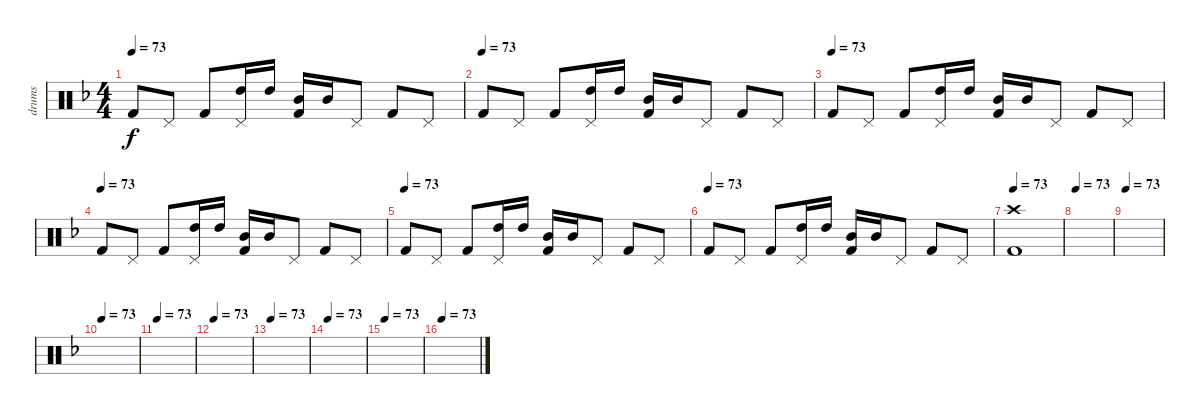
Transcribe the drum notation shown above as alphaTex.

\track ("drums" "drums") {instrument percussion}
\staff {score}
\articulation defaults
\ts (4 4)
\tempo 73
\clef neutral
\ks dminor "Kick (hit) 2".8{dy f} "Pedal Hi-Hat (hit)".8 "Kick (hit) 2".8
("Pedal Hi-Hat (hit)" "High Tom (hit)").16 "High Tom (hit)".16 ("Mid Tom (hit)" "Kick (hit) 2").16 "Mid Tom (hit)".16 "Pedal Hi-Hat (hit)".8 "Kick (hit) 2".8 "Pedal Hi-Hat (hit)".8 |
\tempo (73)
"Kick (hit) 2".8 "Pedal Hi-Hat (hit)".8 "Kick (hit) 2".8 ("Pedal Hi-Hat (hit)" "High Tom (hit)").16 "High Tom (hit)".16 ("Mid Tom (hit)" "Kick (hit) 2").16 "Mid Tom (hit)".16 "Pedal Hi-Hat (hit)".8 "Kick (hit) 2".8 "Pedal Hi-Hat (hit)".8 |
\tempo (73)
"Kick (hit) 2".8 "Pedal Hi-Hat (hit)".8 "Kick (hit) 2".8 ("Pedal Hi-Hat (hit)" "High Tom (hit)").16 "High Tom (hit)".16 ("Mid Tom (hit)" "Kick (hit) 2").16 "Mid Tom (hit)".16 "Pedal Hi-Hat (hit)".8 "Kick (hit) 2".8 "Pedal Hi-Hat (hit)".8 |
\tempo (73)
"Kick (hit) 2".8 "Pedal Hi-Hat (hit)".8 "Kick (hit) 2".8 ("Pedal Hi-Hat (hit)" "High Tom (hit)").16 "High Tom (hit)".16 ("Mid Tom (hit)" "Kick (hit) 2").16 "Mid Tom (hit)".16 "Pedal Hi-Hat (hit)".8 "Kick (hit) 2".8 "Pedal Hi-Hat (hit)".8 |
\tempo (73)
"Kick (hit) 2".8 "Pedal Hi-Hat (hit)".8 "Kick (hit) 2".8 ("Pedal Hi-Hat (hit)" "High Tom (hit)").16 "High Tom (hit)".16 ("Mid Tom (hit)" "Kick (hit) 2").16 "Mid Tom (hit)".16 "Pedal Hi-Hat (hit)".8 "Kick (hit) 2".8 "Pedal Hi-Hat (hit)".8 |
\tempo (73)
"Kick (hit) 2".8 "Pedal Hi-Hat (hit)".8 "Kick (hit) 2".8 ("Pedal Hi-Hat (hit)" "High Tom (hit)").16 "High Tom (hit)".16 ("Mid Tom (hit)" "Kick (hit) 2").16 "Mid Tom (hit)".16 "Pedal Hi-Hat (hit)".8 "Kick (hit) 2".8 "Pedal Hi-Hat (hit)".8 |
\tempo 73
("Crash high (hit)" "Kick (hit) 2").1 |
\tempo 73
|
\tempo 73
|
\tempo 73
|
\tempo 73
|
\tempo 73
|
\tempo 73
|
\tempo 73
|
\tempo 73
|
\tempo 73
